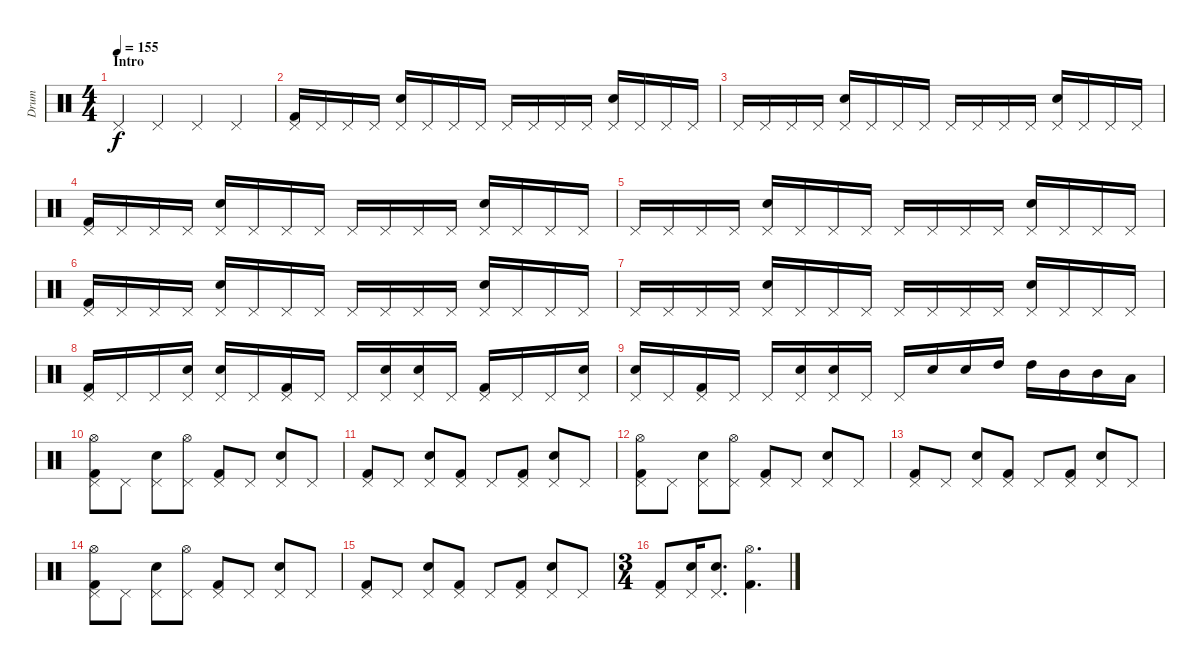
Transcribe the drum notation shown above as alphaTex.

\track ("Drum" "Drum") {instrument percussion}
\staff {score}
\articulation defaults
\ts (4 4)
\section ("" "Intro")
\tempo 155
\clef neutral
\ks c "Pedal Hi-Hat (hit)".4{dy f} "Pedal Hi-Hat (hit)".4 "Pedal Hi-Hat (hit)".4 "Pedal Hi-Hat (hit)".4
|
("Kick (hit) 2" "Pedal Hi-Hat (hit)").16 "Pedal Hi-Hat (hit)".16 "Pedal Hi-Hat (hit)".16 "Pedal Hi-Hat (hit)".16 ("Electric Snare (hit)" "Pedal Hi-Hat (hit)").16 "Pedal Hi-Hat (hit)".16 "Pedal Hi-Hat (hit)".16 "Pedal Hi-Hat (hit)".16 "Pedal Hi-Hat (hit)".16 "Pedal Hi-Hat (hit)".16 "Pedal Hi-Hat (hit)".16 "Pedal Hi-Hat (hit)".16 ("Electric Snare (hit)" "Pedal Hi-Hat (hit)").16 "Pedal Hi-Hat (hit)".16 "Pedal Hi-Hat (hit)".16 "Pedal Hi-Hat (hit)".16 |
"Pedal Hi-Hat (hit)".16 "Pedal Hi-Hat (hit)".16 "Pedal Hi-Hat (hit)".16 "Pedal Hi-Hat (hit)".16 ("Electric Snare (hit)" "Pedal Hi-Hat (hit)").16 "Pedal Hi-Hat (hit)".16 "Pedal Hi-Hat (hit)".16 "Pedal Hi-Hat (hit)".16 "Pedal Hi-Hat (hit)".16 "Pedal Hi-Hat (hit)".16 "Pedal Hi-Hat (hit)".16 "Pedal Hi-Hat (hit)".16 ("Electric Snare (hit)" "Pedal Hi-Hat (hit)").16 "Pedal Hi-Hat (hit)".16 "Pedal Hi-Hat (hit)".16 "Pedal Hi-Hat (hit)".16 |
("Kick (hit) 2" "Pedal Hi-Hat (hit)").16 "Pedal Hi-Hat (hit)".16 "Pedal Hi-Hat (hit)".16 "Pedal Hi-Hat (hit)".16 ("Electric Snare (hit)" "Pedal Hi-Hat (hit)").16 "Pedal Hi-Hat (hit)".16 "Pedal Hi-Hat (hit)".16 "Pedal Hi-Hat (hit)".16 "Pedal Hi-Hat (hit)".16 "Pedal Hi-Hat (hit)".16 "Pedal Hi-Hat (hit)".16 "Pedal Hi-Hat (hit)".16 ("Electric Snare (hit)" "Pedal Hi-Hat (hit)").16 "Pedal Hi-Hat (hit)".16 "Pedal Hi-Hat (hit)".16 "Pedal Hi-Hat (hit)".16 |
"Pedal Hi-Hat (hit)".16 "Pedal Hi-Hat (hit)".16 "Pedal Hi-Hat (hit)".16 "Pedal Hi-Hat (hit)".16 ("Electric Snare (hit)" "Pedal Hi-Hat (hit)").16 "Pedal Hi-Hat (hit)".16 "Pedal Hi-Hat (hit)".16 "Pedal Hi-Hat (hit)".16 "Pedal Hi-Hat (hit)".16 "Pedal Hi-Hat (hit)".16 "Pedal Hi-Hat (hit)".16 "Pedal Hi-Hat (hit)".16 ("Electric Snare (hit)" "Pedal Hi-Hat (hit)").16 "Pedal Hi-Hat (hit)".16 "Pedal Hi-Hat (hit)".16 "Pedal Hi-Hat (hit)".16 |
("Kick (hit) 2" "Pedal Hi-Hat (hit)").16 "Pedal Hi-Hat (hit)".16 "Pedal Hi-Hat (hit)".16 "Pedal Hi-Hat (hit)".16 ("Electric Snare (hit)" "Pedal Hi-Hat (hit)").16 "Pedal Hi-Hat (hit)".16 "Pedal Hi-Hat (hit)".16 "Pedal Hi-Hat (hit)".16 "Pedal Hi-Hat (hit)".16 "Pedal Hi-Hat (hit)".16 "Pedal Hi-Hat (hit)".16 "Pedal Hi-Hat (hit)".16 ("Electric Snare (hit)" "Pedal Hi-Hat (hit)").16 "Pedal Hi-Hat (hit)".16 "Pedal Hi-Hat (hit)".16 "Pedal Hi-Hat (hit)".16 |
"Pedal Hi-Hat (hit)".16 "Pedal Hi-Hat (hit)".16 "Pedal Hi-Hat (hit)".16 "Pedal Hi-Hat (hit)".16 ("Electric Snare (hit)" "Pedal Hi-Hat (hit)").16 "Pedal Hi-Hat (hit)".16 "Pedal Hi-Hat (hit)".16 "Pedal Hi-Hat (hit)".16 "Pedal Hi-Hat (hit)".16 "Pedal Hi-Hat (hit)".16 "Pedal Hi-Hat (hit)".16 "Pedal Hi-Hat (hit)".16 ("Electric Snare (hit)" "Pedal Hi-Hat (hit)").16 "Pedal Hi-Hat (hit)".16 "Pedal Hi-Hat (hit)".16 "Pedal Hi-Hat (hit)".16 |
("Kick (hit) 2" "Pedal Hi-Hat (hit)").16 "Pedal Hi-Hat (hit)".16 "Pedal Hi-Hat (hit)".16 ("Electric Snare (hit)" "Pedal Hi-Hat (hit)").16 ("Electric Snare (hit)" "Pedal Hi-Hat (hit)").16 "Pedal Hi-Hat (hit)".16 ("Kick (hit) 2" "Pedal Hi-Hat (hit)").16 "Pedal Hi-Hat (hit)".16 "Pedal Hi-Hat (hit)".16 ("Electric Snare (hit)" "Pedal Hi-Hat (hit)").16 ("Electric Snare (hit)" "Pedal Hi-Hat (hit)").16 "Pedal Hi-Hat (hit)".16 ("Kick (hit) 2" "Pedal Hi-Hat (hit)").16 "Pedal Hi-Hat (hit)".16 "Pedal Hi-Hat (hit)".16 ("Electric Snare (hit)" "Pedal Hi-Hat (hit)").16 |
("Electric Snare (hit)" "Pedal Hi-Hat (hit)").16 "Pedal Hi-Hat (hit)".16 ("Kick (hit) 2" "Pedal Hi-Hat (hit)").16 "Pedal Hi-Hat (hit)".16 "Pedal Hi-Hat (hit)".16 ("Electric Snare (hit)" "Pedal Hi-Hat (hit)").16 ("Electric Snare (hit)" "Pedal Hi-Hat (hit)").16 "Pedal Hi-Hat (hit)".16 "Pedal Hi-Hat (hit)".16 "Electric Snare (hit)".16 "Electric Snare (hit)".16 "High Tom (hit)".16 "High Tom (hit)".16 "Mid Tom (hit)".16 "Mid Tom (hit)".16 "Low Tom (hit)".16 |
("Kick (hit) 2" "Pedal Hi-Hat (hit)" "Hi-Hat (open)").8 "Pedal Hi-Hat (hit)".8 ("Electric Snare (hit)" "Pedal Hi-Hat (hit)").8 ("Pedal Hi-Hat (hit)" "Hi-Hat (open)").8 ("Kick (hit) 2" "Pedal Hi-Hat (hit)").8 "Pedal Hi-Hat (hit)".8 ("Electric Snare (hit)" "Pedal Hi-Hat (hit)").8 "Pedal Hi-Hat (hit)".8 |
("Kick (hit) 2" "Pedal Hi-Hat (hit)").8 "Pedal Hi-Hat (hit)".8 ("Electric Snare (hit)" "Pedal Hi-Hat (hit)").8 ("Kick (hit) 2" "Pedal Hi-Hat (hit)").8 "Pedal Hi-Hat (hit)".8 ("Kick (hit) 2" "Pedal Hi-Hat (hit)").8 ("Electric Snare (hit)" "Pedal Hi-Hat (hit)").8 "Pedal Hi-Hat (hit)".8 |
("Kick (hit) 2" "Pedal Hi-Hat (hit)" "Hi-Hat (open)").8 "Pedal Hi-Hat (hit)".8 ("Electric Snare (hit)" "Pedal Hi-Hat (hit)").8 ("Pedal Hi-Hat (hit)" "Hi-Hat (open)").8 ("Kick (hit) 2" "Pedal Hi-Hat (hit)").8 "Pedal Hi-Hat (hit)".8 ("Electric Snare (hit)" "Pedal Hi-Hat (hit)").8 "Pedal Hi-Hat (hit)".8 |
("Kick (hit) 2" "Pedal Hi-Hat (hit)").8 "Pedal Hi-Hat (hit)".8 ("Electric Snare (hit)" "Pedal Hi-Hat (hit)").8 ("Kick (hit) 2" "Pedal Hi-Hat (hit)").8 "Pedal Hi-Hat (hit)".8 ("Kick (hit) 2" "Pedal Hi-Hat (hit)").8 ("Electric Snare (hit)" "Pedal Hi-Hat (hit)").8 "Pedal Hi-Hat (hit)".8 |
("Kick (hit) 2" "Pedal Hi-Hat (hit)" "Hi-Hat (open)").8 "Pedal Hi-Hat (hit)".8 ("Electric Snare (hit)" "Pedal Hi-Hat (hit)").8 ("Pedal Hi-Hat (hit)" "Hi-Hat (open)").8 ("Kick (hit) 2" "Pedal Hi-Hat (hit)").8 "Pedal Hi-Hat (hit)".8 ("Electric Snare (hit)" "Pedal Hi-Hat (hit)").8 "Pedal Hi-Hat (hit)".8 |
("Kick (hit) 2" "Pedal Hi-Hat (hit)").8 "Pedal Hi-Hat (hit)".8 ("Electric Snare (hit)" "Pedal Hi-Hat (hit)").8 ("Kick (hit) 2" "Pedal Hi-Hat (hit)").8 "Pedal Hi-Hat (hit)".8 ("Kick (hit) 2" "Pedal Hi-Hat (hit)").8 ("Electric Snare (hit)" "Pedal Hi-Hat (hit)").8 "Pedal Hi-Hat (hit)".8 |
\ts (3 4)
("Kick (hit) 2" "Pedal Hi-Hat (hit)").8 ("Electric Snare (hit)" "Pedal Hi-Hat (hit)").16 ("Electric Snare (hit)" "Pedal Hi-Hat (hit)").8{d} ("Kick (hit) 2" "Hi-Hat (open)").4{d}
